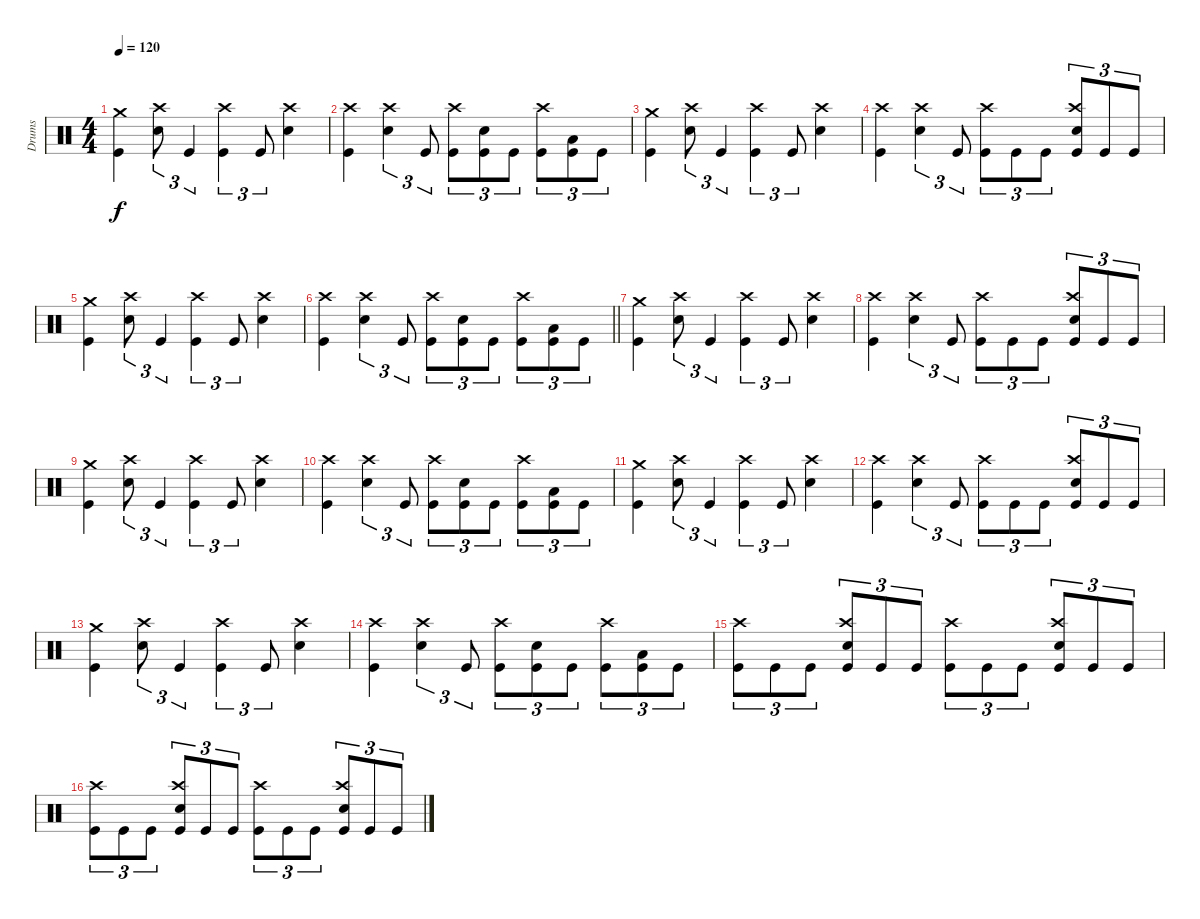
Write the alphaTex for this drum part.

\track ("Drums" "Drums") {instrument percussion}
\staff {score}
\articulation defaults
\ts (4 4)
\tempo 120
\clef neutral
\ks c
("Crash medium (hit)" "Kick (hit)").4{dy f} ("Crash high (hit)" "Snare (hit) 2").8{tu (3 2)} "Kick (hit)".4{tu (3 2)} ("Crash high (hit)" "Kick (hit)").4{tu (3 2)} "Kick (hit)".8{tu (3 2)} ("Crash high (hit)" "Snare (hit) 2").4 |
("Crash high (hit)" "Kick (hit)").4 ("Crash high (hit)" "Snare (hit) 2").4{tu (3 2)} "Kick (hit)".8{tu (3 2)} ("Crash high (hit)" "Kick (hit)").8{tu (3 2)} ("Snare (hit) 2" "Kick (hit)").8{tu (3 2)} "Kick (hit)".8{tu (3 2)} ("Crash high (hit)" "Kick (hit)").8{tu (3 2)} ("Low Tom (hit)" "Kick (hit)").8{tu (3 2)} "Kick (hit)".8{tu (3 2)} |
("Crash medium (hit)" "Kick (hit)").4 ("Crash high (hit)" "Snare (hit) 2").8{tu (3 2)} "Kick (hit)".4{tu (3 2)} ("Crash high (hit)" "Kick (hit)").4{tu (3 2)} "Kick (hit)".8{tu (3 2)} ("Crash high (hit)" "Snare (hit) 2").4 |
("Crash high (hit)" "Kick (hit)").4 ("Crash high (hit)" "Snare (hit) 2").4{tu (3 2)} "Kick (hit)".8{tu (3 2)} ("Crash high (hit)" "Kick (hit)").8{tu (3 2)} "Kick (hit)".8{tu (3 2)} "Kick (hit)".8{tu (3 2)} ("Crash high (hit)" "Snare (hit) 2" "Kick (hit)").8{tu (3 2)} "Kick (hit)".8{tu (3 2)} "Kick (hit)".8{tu (3 2)} |
("Crash medium (hit)" "Kick (hit)").4 ("Crash high (hit)" "Snare (hit) 2").8{tu (3 2)} "Kick (hit)".4{tu (3 2)} ("Crash high (hit)" "Kick (hit)").4{tu (3 2)} "Kick (hit)".8{tu (3 2)} ("Crash high (hit)" "Snare (hit) 2").4 |
\barLineRight lightlight
("Crash high (hit)" "Kick (hit)").4 ("Crash high (hit)" "Snare (hit) 2").4{tu (3 2)} "Kick (hit)".8{tu (3 2)} ("Crash high (hit)" "Kick (hit)").8{tu (3 2)} ("Snare (hit) 2" "Kick (hit)").8{tu (3 2)} "Kick (hit)".8{tu (3 2)} ("Crash high (hit)" "Kick (hit)").8{tu (3 2)} ("Low Tom (hit)" "Kick (hit)").8{tu (3 2)} "Kick (hit)".8{tu (3 2)} |
\section ("" "")
("Crash medium (hit)" "Kick (hit)").4 ("Crash high (hit)" "Snare (hit) 2").8{tu (3 2)} "Kick (hit)".4{tu (3 2)} ("Crash high (hit)" "Kick (hit)").4{tu (3 2)} "Kick (hit)".8{tu (3 2)} ("Crash high (hit)" "Snare (hit) 2").4 |
("Crash high (hit)" "Kick (hit)").4 ("Crash high (hit)" "Snare (hit) 2").4{tu (3 2)} "Kick (hit)".8{tu (3 2)} ("Crash high (hit)" "Kick (hit)").8{tu (3 2)} "Kick (hit)".8{tu (3 2)} "Kick (hit)".8{tu (3 2)} ("Crash high (hit)" "Snare (hit) 2" "Kick (hit)").8{tu (3 2)} "Kick (hit)".8{tu (3 2)} "Kick (hit)".8{tu (3 2)} |
("Crash medium (hit)" "Kick (hit)").4 ("Crash high (hit)" "Snare (hit) 2").8{tu (3 2)} "Kick (hit)".4{tu (3 2)} ("Crash high (hit)" "Kick (hit)").4{tu (3 2)} "Kick (hit)".8{tu (3 2)} ("Crash high (hit)" "Snare (hit) 2").4 |
("Crash high (hit)" "Kick (hit)").4 ("Crash high (hit)" "Snare (hit) 2").4{tu (3 2)} "Kick (hit)".8{tu (3 2)} ("Crash high (hit)" "Kick (hit)").8{tu (3 2)} ("Snare (hit) 2" "Kick (hit)").8{tu (3 2)} "Kick (hit)".8{tu (3 2)} ("Crash high (hit)" "Kick (hit)").8{tu (3 2)} ("Low Tom (hit)" "Kick (hit)").8{tu (3 2)} "Kick (hit)".8{tu (3 2)} |
("Crash medium (hit)" "Kick (hit)").4 ("Crash high (hit)" "Snare (hit) 2").8{tu (3 2)} "Kick (hit)".4{tu (3 2)} ("Crash high (hit)" "Kick (hit)").4{tu (3 2)} "Kick (hit)".8{tu (3 2)} ("Crash high (hit)" "Snare (hit) 2").4 |
("Crash high (hit)" "Kick (hit)").4 ("Crash high (hit)" "Snare (hit) 2").4{tu (3 2)} "Kick (hit)".8{tu (3 2)} ("Crash high (hit)" "Kick (hit)").8{tu (3 2)} "Kick (hit)".8{tu (3 2)} "Kick (hit)".8{tu (3 2)} ("Crash high (hit)" "Snare (hit) 2" "Kick (hit)").8{tu (3 2)} "Kick (hit)".8{tu (3 2)} "Kick (hit)".8{tu (3 2)} |
("Crash medium (hit)" "Kick (hit)").4 ("Crash high (hit)" "Snare (hit) 2").8{tu (3 2)} "Kick (hit)".4{tu (3 2)} ("Crash high (hit)" "Kick (hit)").4{tu (3 2)} "Kick (hit)".8{tu (3 2)} ("Crash high (hit)" "Snare (hit) 2").4 |
("Crash high (hit)" "Kick (hit)").4 ("Crash high (hit)" "Snare (hit) 2").4{tu (3 2)} "Kick (hit)".8{tu (3 2)} ("Crash high (hit)" "Kick (hit)").8{tu (3 2)} ("Snare (hit) 2" "Kick (hit)").8{tu (3 2)} "Kick (hit)".8{tu (3 2)} ("Crash high (hit)" "Kick (hit)").8{tu (3 2)} ("Low Tom (hit)" "Kick (hit)").8{tu (3 2)} "Kick (hit)".8{tu (3 2)} |
("Crash high (hit)" "Kick (hit)").8{tu (3 2)} "Kick (hit)".8{tu (3 2)} "Kick (hit)".8{tu (3 2)} ("Crash high (hit)" "Snare (hit) 2" "Kick (hit)").8{tu (3 2)} "Kick (hit)".8{tu (3 2)} "Kick (hit)".8{tu (3 2)} ("Crash high (hit)" "Kick (hit)").8{tu (3 2)} "Kick (hit)".8{tu (3 2)} "Kick (hit)".8{tu (3 2)} ("Crash high (hit)" "Snare (hit) 2" "Kick (hit)").8{tu (3 2)} "Kick (hit)".8{tu (3 2)} "Kick (hit)".8{tu (3 2)} |
("Crash high (hit)" "Kick (hit)").8{tu (3 2)} "Kick (hit)".8{tu (3 2)} "Kick (hit)".8{tu (3 2)} ("Crash high (hit)" "Snare (hit) 2" "Kick (hit)").8{tu (3 2)} "Kick (hit)".8{tu (3 2)} "Kick (hit)".8{tu (3 2)} ("Crash high (hit)" "Kick (hit)").8{tu (3 2)} "Kick (hit)".8{tu (3 2)} "Kick (hit)".8{tu (3 2)} ("Crash high (hit)" "Snare (hit) 2" "Kick (hit)").8{tu (3 2)} "Kick (hit)".8{tu (3 2)} "Kick (hit)".8{tu (3 2)}
